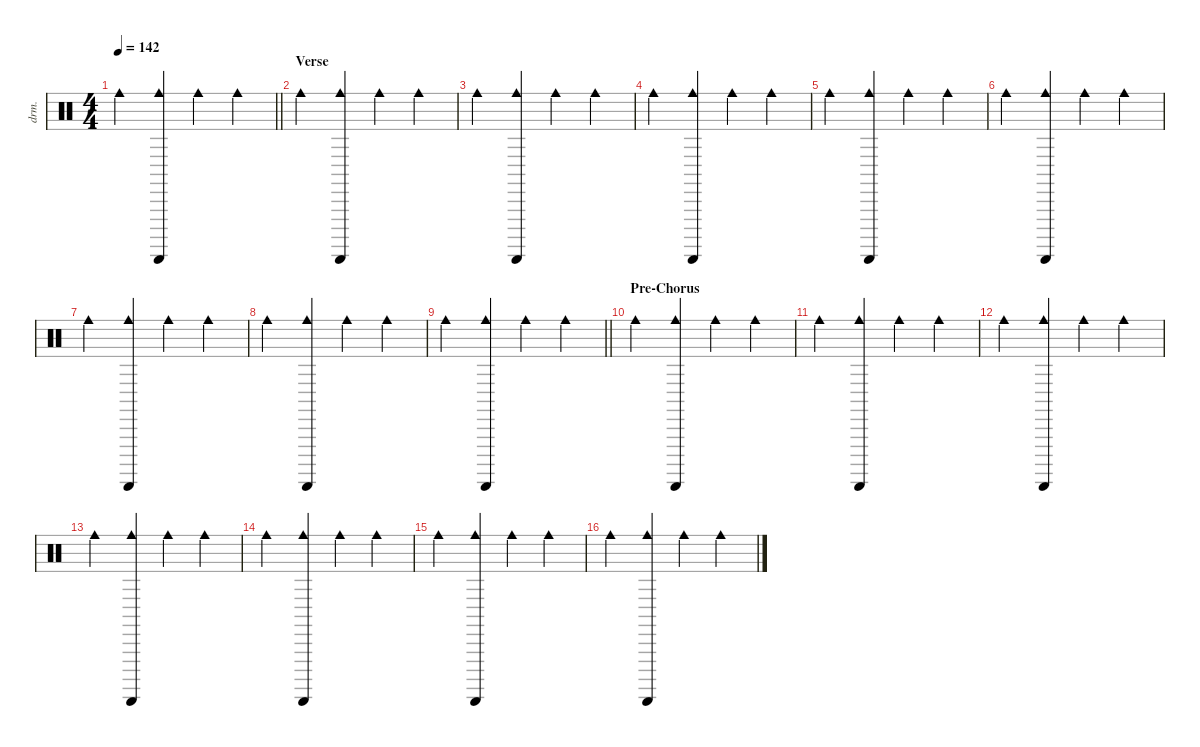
\defaultSystemsLayout 4
\hideDynamics
\bracketExtendMode nobrackets
\otherSystemsTrackNameOrientation horizontal
\track ("Percussion" "drm.") {instrument percussion}
\staff {score}
\articulation defaults
\ts (4 4)
\tempo 142
\clef neutral
\barLineRight lightlight
\ks c "Cowbell medium (hit)".4{dy mf beam Down}
("Guiro (scrap-return)" "Cowbell medium (hit)").4{dy p beam Up} "Cowbell medium (hit)".4{dy mf beam Down} "Cowbell medium (hit)".4{beam Down} |
\section ("" "Verse")
"Cowbell medium (hit)".4{beam Down} ("Guiro (scrap-return)" "Cowbell medium (hit)").4{dy p beam Up} "Cowbell medium (hit)".4{dy mf beam Down} "Cowbell medium (hit)".4{beam Down} |
"Cowbell medium (hit)".4{beam Down} ("Guiro (scrap-return)" "Cowbell medium (hit)").4{dy p beam Up} "Cowbell medium (hit)".4{dy mf beam Down} "Cowbell medium (hit)".4{beam Down} |
"Cowbell medium (hit)".4{beam Down} ("Guiro (scrap-return)" "Cowbell medium (hit)").4{dy p beam Up} "Cowbell medium (hit)".4{dy mf beam Down} "Cowbell medium (hit)".4{beam Down} |
"Cowbell medium (hit)".4{beam Down} ("Guiro (scrap-return)" "Cowbell medium (hit)").4{dy p beam Up} "Cowbell medium (hit)".4{dy mf beam Down} "Cowbell medium (hit)".4{beam Down} |
"Cowbell medium (hit)".4{beam Down} ("Guiro (scrap-return)" "Cowbell medium (hit)").4{dy p beam Up} "Cowbell medium (hit)".4{dy mf beam Down} "Cowbell medium (hit)".4{beam Down} |
"Cowbell medium (hit)".4{beam Down} ("Guiro (scrap-return)" "Cowbell medium (hit)").4{dy p beam Up} "Cowbell medium (hit)".4{dy mf beam Down} "Cowbell medium (hit)".4{beam Down} |
"Cowbell medium (hit)".4{beam Down} ("Guiro (scrap-return)" "Cowbell medium (hit)").4{dy p beam Up} "Cowbell medium (hit)".4{dy mf beam Down} "Cowbell medium (hit)".4{beam Down} |
\barLineRight lightlight "Cowbell medium (hit)".4{beam Down}
("Guiro (scrap-return)" "Cowbell medium (hit)").4{dy p beam Up} "Cowbell medium (hit)".4{dy mf beam Down} "Cowbell medium (hit)".4{beam Down} |
\section ("" "Pre-Chorus")
"Cowbell medium (hit)".4{beam Down} ("Guiro (scrap-return)" "Cowbell medium (hit)").4{dy p beam Up} "Cowbell medium (hit)".4{dy mf beam Down} "Cowbell medium (hit)".4{beam Down} |
"Cowbell medium (hit)".4{beam Down} ("Guiro (scrap-return)" "Cowbell medium (hit)").4{dy p beam Up} "Cowbell medium (hit)".4{dy mf beam Down} "Cowbell medium (hit)".4{beam Down} |
"Cowbell medium (hit)".4{beam Down} ("Guiro (scrap-return)" "Cowbell medium (hit)").4{dy p beam Up} "Cowbell medium (hit)".4{dy mf beam Down} "Cowbell medium (hit)".4{beam Down} |
"Cowbell medium (hit)".4{beam Down} ("Guiro (scrap-return)" "Cowbell medium (hit)").4{dy p beam Up} "Cowbell medium (hit)".4{dy mf beam Down} "Cowbell medium (hit)".4{beam Down} |
"Cowbell medium (hit)".4{beam Down} ("Guiro (scrap-return)" "Cowbell medium (hit)").4{dy p beam Up} "Cowbell medium (hit)".4{dy mf beam Down} "Cowbell medium (hit)".4{beam Down} |
"Cowbell medium (hit)".4{beam Down} ("Guiro (scrap-return)" "Cowbell medium (hit)").4{dy p beam Up} "Cowbell medium (hit)".4{dy mf beam Down} "Cowbell medium (hit)".4{beam Down} |
"Cowbell medium (hit)".4{beam Down} ("Guiro (scrap-return)" "Cowbell medium (hit)").4{dy p beam Up} "Cowbell medium (hit)".4{dy mf beam Down} "Cowbell medium (hit)".4{beam Down}
